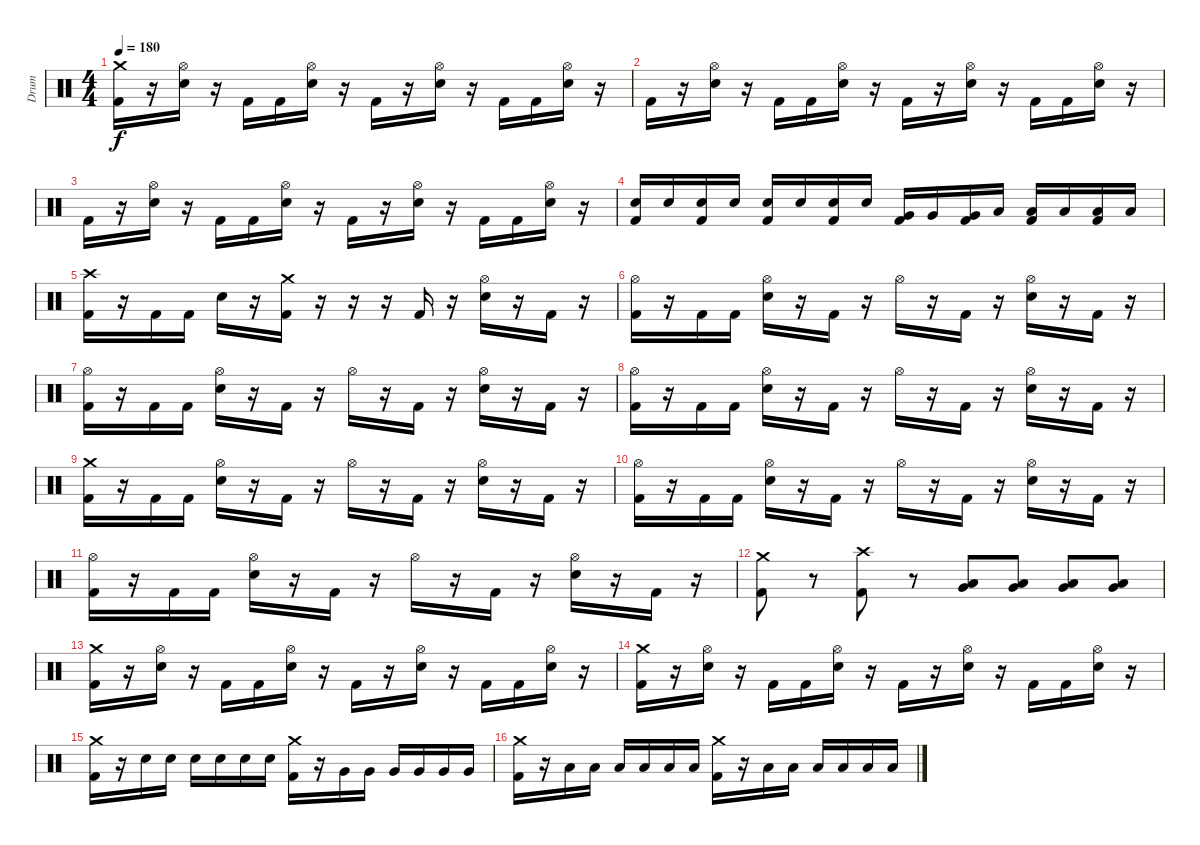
\track ("Drum" "Drum") {instrument percussion}
\staff {score}
\articulation defaults
\ts (4 4)
\tempo 180
\clef neutral
\ks c
("Crash medium (hit)" "Kick (hit) 2").16{dy f} r.16 ("Hi-Hat (open)" "Electric Snare (hit)").16 r.16 "Kick (hit) 2".16 "Kick (hit) 2".16 ("Hi-Hat (open)" "Electric Snare (hit)").16 r.16 "Kick (hit) 2".16 r.16 ("Hi-Hat (open)" "Electric Snare (hit)").16 r.16 "Kick (hit) 2".16 "Kick (hit) 2".16 ("Hi-Hat (open)" "Electric Snare (hit)").16 r.16 |
"Kick (hit) 2".16 r.16 ("Hi-Hat (open)" "Electric Snare (hit)").16 r.16 "Kick (hit) 2".16 "Kick (hit) 2".16 ("Hi-Hat (open)" "Electric Snare (hit)").16 r.16 "Kick (hit) 2".16 r.16 ("Hi-Hat (open)" "Electric Snare (hit)").16 r.16 "Kick (hit) 2".16 "Kick (hit) 2".16 ("Hi-Hat (open)" "Electric Snare (hit)").16 r.16 |
"Kick (hit) 2".16 r.16 ("Hi-Hat (open)" "Electric Snare (hit)").16 r.16 "Kick (hit) 2".16 "Kick (hit) 2".16 ("Hi-Hat (open)" "Electric Snare (hit)").16 r.16 "Kick (hit) 2".16 r.16 ("Hi-Hat (open)" "Electric Snare (hit)").16 r.16 "Kick (hit) 2".16 "Kick (hit) 2".16 ("Hi-Hat (open)" "Electric Snare (hit)").16 r.16 |
("Electric Snare (hit)" "Kick (hit) 2").16 "Electric Snare (hit)".16 ("Electric Snare (hit)" "Kick (hit) 2").16 "Electric Snare (hit)".16 ("Electric Snare (hit)" "Kick (hit) 2").16 "Electric Snare (hit)".16 ("Electric Snare (hit)" "Kick (hit) 2").16 "Electric Snare (hit)".16 ("Very Low Tom (hit)" "Kick (hit) 2").16 "Very Low Tom (hit)".16 ("Very Low Tom (hit)" "Kick (hit) 2").16 "Low Floor Tom (hit)".16 ("Low Floor Tom (hit)" "Kick (hit) 2").16 "Low Floor Tom (hit)".16 ("Low Floor Tom (hit)" "Kick (hit) 2").16 "Low Floor Tom (hit)".16 |
("Crash high (hit)" "Kick (hit) 2").16 r.16 "Kick (hit) 2".16 "Kick (hit) 2".16 "Electric Snare (hit)".16 r.16 ("Crash medium (hit)" "Kick (hit) 2").16 r.16 r.16 r.16 "Kick (hit) 2".16 r.16 ("Hi-Hat (open)" "Electric Snare (hit)").16 r.16 "Kick (hit) 2".16 r.16 |
("Hi-Hat (open)" "Kick (hit) 2").16 r.16 "Kick (hit) 2".16 "Kick (hit) 2".16 ("Hi-Hat (open)" "Electric Snare (hit)").16 r.16 "Kick (hit) 2".16 r.16 "Hi-Hat (open)".16 r.16 "Kick (hit) 2".16 r.16 ("Hi-Hat (open)" "Electric Snare (hit)").16 r.16 "Kick (hit) 2".16 r.16 |
("Hi-Hat (open)" "Kick (hit) 2").16 r.16 "Kick (hit) 2".16 "Kick (hit) 2".16 ("Hi-Hat (open)" "Electric Snare (hit)").16 r.16 "Kick (hit) 2".16 r.16 "Hi-Hat (open)".16 r.16 "Kick (hit) 2".16 r.16 ("Hi-Hat (open)" "Electric Snare (hit)").16 r.16 "Kick (hit) 2".16 r.16 |
("Hi-Hat (open)" "Kick (hit) 2").16 r.16 "Kick (hit) 2".16 "Kick (hit) 2".16 ("Hi-Hat (open)" "Electric Snare (hit)").16 r.16 "Kick (hit) 2".16 r.16 "Hi-Hat (open)".16 r.16 "Kick (hit) 2".16 r.16 ("Hi-Hat (open)" "Electric Snare (hit)").16 r.16 "Kick (hit) 2".16 r.16 |
("Crash medium (hit)" "Kick (hit) 2").16 r.16 "Kick (hit) 2".16 "Kick (hit) 2".16 ("Hi-Hat (open)" "Electric Snare (hit)").16 r.16 "Kick (hit) 2".16 r.16 "Hi-Hat (open)".16 r.16 "Kick (hit) 2".16 r.16 ("Hi-Hat (open)" "Electric Snare (hit)").16 r.16 "Kick (hit) 2".16 r.16 |
("Hi-Hat (open)" "Kick (hit) 2").16 r.16 "Kick (hit) 2".16 "Kick (hit) 2".16 ("Hi-Hat (open)" "Electric Snare (hit)").16 r.16 "Kick (hit) 2".16 r.16 "Hi-Hat (open)".16 r.16 "Kick (hit) 2".16 r.16 ("Hi-Hat (open)" "Electric Snare (hit)").16 r.16 "Kick (hit) 2".16 r.16 |
("Hi-Hat (open)" "Kick (hit) 2").16 r.16 "Kick (hit) 2".16 "Kick (hit) 2".16 ("Hi-Hat (open)" "Electric Snare (hit)").16 r.16 "Kick (hit) 2".16 r.16 "Hi-Hat (open)".16 r.16 "Kick (hit) 2".16 r.16 ("Hi-Hat (open)" "Electric Snare (hit)").16 r.16 "Kick (hit) 2".16 r.16 |
("Crash medium (hit)" "Kick (hit) 2").8 r.8 ("Crash high (hit)" "Kick (hit) 2").8 r.8 ("Very Low Tom (hit)" "Low Floor Tom (hit)").8 ("Very Low Tom (hit)" "Low Floor Tom (hit)").8 ("Very Low Tom (hit)" "Low Floor Tom (hit)").8 ("Very Low Tom (hit)" "Low Floor Tom (hit)").8 |
("Crash medium (hit)" "Kick (hit) 2").16 r.16 ("Hi-Hat (open)" "Electric Snare (hit)").16 r.16 "Kick (hit) 2".16 "Kick (hit) 2".16 ("Hi-Hat (open)" "Electric Snare (hit)").16 r.16 "Kick (hit) 2".16 r.16 ("Hi-Hat (open)" "Electric Snare (hit)").16 r.16 "Kick (hit) 2".16 "Kick (hit) 2".16 ("Hi-Hat (open)" "Electric Snare (hit)").16 r.16 |
("Crash medium (hit)" "Kick (hit) 2").16 r.16 ("Hi-Hat (open)" "Electric Snare (hit)").16 r.16 "Kick (hit) 2".16 "Kick (hit) 2".16 ("Hi-Hat (open)" "Electric Snare (hit)").16 r.16 "Kick (hit) 2".16 r.16 ("Hi-Hat (open)" "Electric Snare (hit)").16 r.16 "Kick (hit) 2".16 "Kick (hit) 2".16 ("Hi-Hat (open)" "Electric Snare (hit)").16 r.16 |
("Crash medium (hit)" "Kick (hit) 2").16 r.16 "Electric Snare (hit)".16 "Electric Snare (hit)".16 "Electric Snare (hit)".16 "Electric Snare (hit)".16 "Electric Snare (hit)".16 "Electric Snare (hit)".16 ("Crash medium (hit)" "Kick (hit) 2").16 r.16 "Very Low Tom (hit)".16 "Very Low Tom (hit)".16 "Very Low Tom (hit)".16 "Very Low Tom (hit)".16 "Very Low Tom (hit)".16 "Very Low Tom (hit)".16 |
("Crash medium (hit)" "Kick (hit) 2").16 r.16 "Low Floor Tom (hit)".16 "Low Floor Tom (hit)".16 "Low Floor Tom (hit)".16 "Low Floor Tom (hit)".16 "Low Floor Tom (hit)".16 "Low Floor Tom (hit)".16 ("Crash medium (hit)" "Kick (hit) 2").16 r.16 "Low Tom (hit)".16 "Low Tom (hit)".16 "Low Tom (hit)".16 "Low Tom (hit)".16 "Low Tom (hit)".16 "Low Tom (hit)".16
